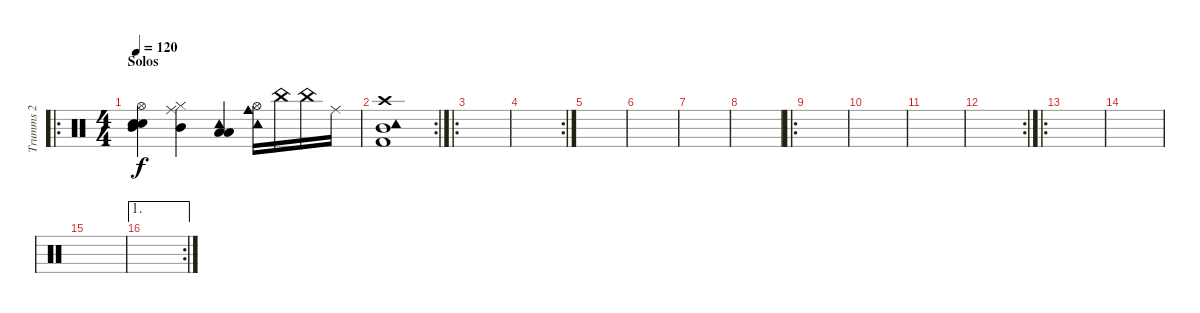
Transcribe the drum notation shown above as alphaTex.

\track ("Trumms 2" "Trumms 2") {instrument percussion}
\staff {score}
\articulation defaults
\ro
\ts (4 4)
\section ("" "Solos")
\tempo 120
\clef neutral
\ks c
("Hi-Hat (open)" "Snare (hit)" "Mid Tom (hit)" "Snare (hit)").4{dy f} ("Mid Tom (hit)" "Hi-Hat (closed)" "Ride (middle)").4 ("Low Floor Tom (hit)" "Tambourine (hit)" "Low Tom (hit)").4 ("Tambourine (hit)" "Hi-Hat (open)" "Cowbell medium (hit)").16 "China (hit)".16 "China (hit)".16 "Ride (middle)".16 |
\rc 2
("Tambourine (hit)" "Crash high (hit)" "Kick (hit) 2" "Mid Tom (hit)").1 |
\ro
|
\rc 2
|
|
|
|
|
\ro
|
|
|
\rc 2
|
\ro
|
|
|
\ae 1
\rc 2
